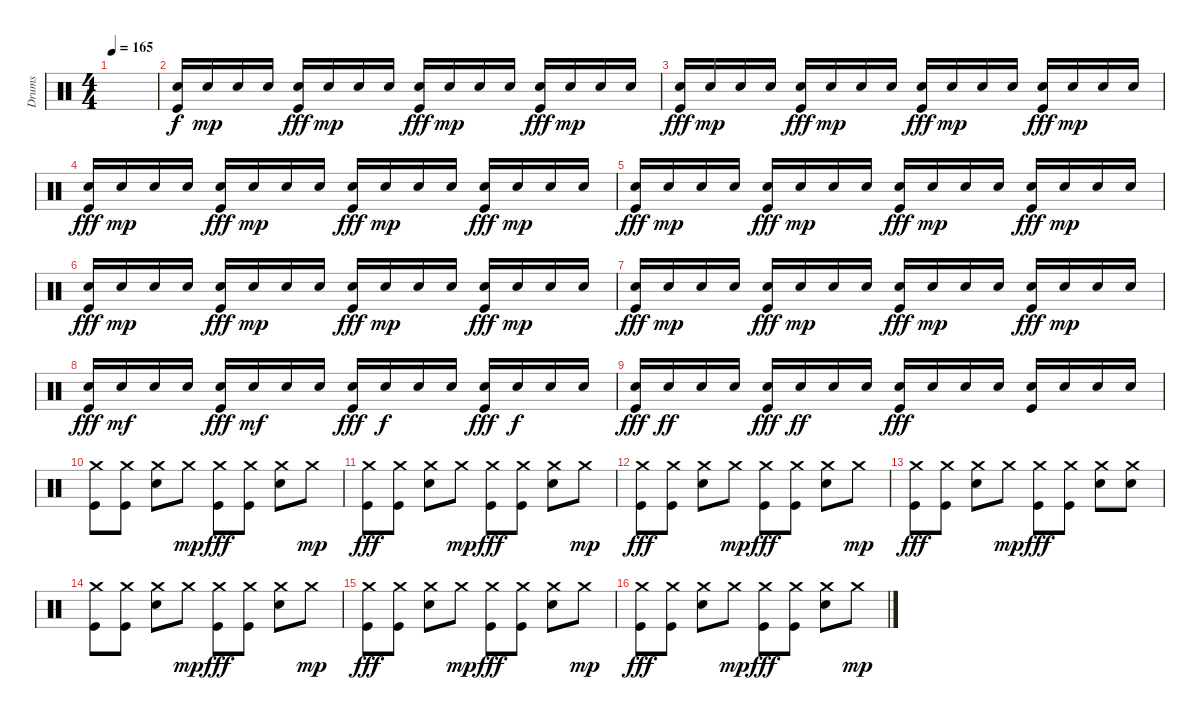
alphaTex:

\track ("Drums" "Drums") {instrument percussion}
\staff {score}
\articulation defaults
\ts (4 4)
\tempo 165
\clef neutral
\ks c
|
("Snare (hit) 2" "Kick (hit)").16 "Snare (hit) 2".16{dy mp} "Snare (hit) 2".16 "Snare (hit) 2".16 ("Snare (hit) 2" "Kick (hit)").16{dy fff} "Snare (hit) 2".16{dy mp} "Snare (hit) 2".16 "Snare (hit) 2".16 ("Snare (hit) 2" "Kick (hit)").16{dy fff} "Snare (hit) 2".16{dy mp} "Snare (hit) 2".16 "Snare (hit) 2".16 ("Snare (hit) 2" "Kick (hit)").16{dy fff} "Snare (hit) 2".16{dy mp} "Snare (hit) 2".16 "Snare (hit) 2".16 |
("Snare (hit) 2" "Kick (hit)").16{dy fff} "Snare (hit) 2".16{dy mp} "Snare (hit) 2".16 "Snare (hit) 2".16 ("Snare (hit) 2" "Kick (hit)").16{dy fff} "Snare (hit) 2".16{dy mp} "Snare (hit) 2".16 "Snare (hit) 2".16 ("Snare (hit) 2" "Kick (hit)").16{dy fff} "Snare (hit) 2".16{dy mp} "Snare (hit) 2".16 "Snare (hit) 2".16 ("Snare (hit) 2" "Kick (hit)").16{dy fff} "Snare (hit) 2".16{dy mp} "Snare (hit) 2".16 "Snare (hit) 2".16 |
("Snare (hit) 2" "Kick (hit)").16{dy fff} "Snare (hit) 2".16{dy mp} "Snare (hit) 2".16 "Snare (hit) 2".16 ("Snare (hit) 2" "Kick (hit)").16{dy fff} "Snare (hit) 2".16{dy mp} "Snare (hit) 2".16 "Snare (hit) 2".16 ("Snare (hit) 2" "Kick (hit)").16{dy fff} "Snare (hit) 2".16{dy mp} "Snare (hit) 2".16 "Snare (hit) 2".16 ("Snare (hit) 2" "Kick (hit)").16{dy fff} "Snare (hit) 2".16{dy mp} "Snare (hit) 2".16 "Snare (hit) 2".16 |
("Snare (hit) 2" "Kick (hit)").16{dy fff} "Snare (hit) 2".16{dy mp} "Snare (hit) 2".16 "Snare (hit) 2".16 ("Snare (hit) 2" "Kick (hit)").16{dy fff} "Snare (hit) 2".16{dy mp} "Snare (hit) 2".16 "Snare (hit) 2".16 ("Snare (hit) 2" "Kick (hit)").16{dy fff} "Snare (hit) 2".16{dy mp} "Snare (hit) 2".16 "Snare (hit) 2".16 ("Snare (hit) 2" "Kick (hit)").16{dy fff} "Snare (hit) 2".16{dy mp} "Snare (hit) 2".16 "Snare (hit) 2".16 |
("Snare (hit) 2" "Kick (hit)").16{dy fff} "Snare (hit) 2".16{dy mp} "Snare (hit) 2".16 "Snare (hit) 2".16 ("Snare (hit) 2" "Kick (hit)").16{dy fff} "Snare (hit) 2".16{dy mp} "Snare (hit) 2".16 "Snare (hit) 2".16 ("Snare (hit) 2" "Kick (hit)").16{dy fff} "Snare (hit) 2".16{dy mp} "Snare (hit) 2".16 "Snare (hit) 2".16 ("Snare (hit) 2" "Kick (hit)").16{dy fff} "Snare (hit) 2".16{dy mp} "Snare (hit) 2".16 "Snare (hit) 2".16 |
("Snare (hit) 2" "Kick (hit)").16{dy fff} "Snare (hit) 2".16{dy mp} "Snare (hit) 2".16 "Snare (hit) 2".16 ("Snare (hit) 2" "Kick (hit)").16{dy fff} "Snare (hit) 2".16{dy mp} "Snare (hit) 2".16 "Snare (hit) 2".16 ("Snare (hit) 2" "Kick (hit)").16{dy fff} "Snare (hit) 2".16{dy mp} "Snare (hit) 2".16 "Snare (hit) 2".16 ("Snare (hit) 2" "Kick (hit)").16{dy fff} "Snare (hit) 2".16{dy mp} "Snare (hit) 2".16 "Snare (hit) 2".16 |
("Snare (hit) 2" "Kick (hit)").16{dy fff} "Snare (hit) 2".16{dy mf} "Snare (hit) 2".16 "Snare (hit) 2".16 ("Snare (hit) 2" "Kick (hit)").16{dy fff} "Snare (hit) 2".16{dy mf} "Snare (hit) 2".16 "Snare (hit) 2".16 ("Snare (hit) 2" "Kick (hit)").16{dy fff} "Snare (hit) 2".16{dy f} "Snare (hit) 2".16 "Snare (hit) 2".16 ("Snare (hit) 2" "Kick (hit)").16{dy fff} "Snare (hit) 2".16{dy f} "Snare (hit) 2".16 "Snare (hit) 2".16 |
("Snare (hit) 2" "Kick (hit)").16{dy fff} "Snare (hit) 2".16{dy ff} "Snare (hit) 2".16 "Snare (hit) 2".16 ("Snare (hit) 2" "Kick (hit)").16{dy fff} "Snare (hit) 2".16{dy ff} "Snare (hit) 2".16 "Snare (hit) 2".16 ("Snare (hit) 2" "Kick (hit)").16{dy fff} "Snare (hit) 2".16 "Snare (hit) 2".16 "Snare (hit) 2".16 ("Snare (hit) 2" "Kick (hit)").16 "Snare (hit) 2".16 "Snare (hit) 2".16 "Snare (hit) 2".16 |
("Crash medium (hit)" "Kick (hit)").8 ("Crash medium (hit)" "Kick (hit)").8 ("Crash medium (hit)" "Snare (hit) 2").8 "Crash medium (hit)".8{dy mp} ("Crash medium (hit)" "Kick (hit)").8{dy fff} ("Crash medium (hit)" "Kick (hit)").8 ("Crash medium (hit)" "Snare (hit) 2").8 "Crash medium (hit)".8{dy mp} |
("Crash medium (hit)" "Kick (hit)").8{dy fff} ("Crash medium (hit)" "Kick (hit)").8 ("Crash medium (hit)" "Snare (hit) 2").8 "Crash medium (hit)".8{dy mp} ("Crash medium (hit)" "Kick (hit)").8{dy fff} ("Crash medium (hit)" "Kick (hit)").8 ("Crash medium (hit)" "Snare (hit) 2").8 "Crash medium (hit)".8{dy mp} |
("Crash medium (hit)" "Kick (hit)").8{dy fff} ("Crash medium (hit)" "Kick (hit)").8 ("Crash medium (hit)" "Snare (hit) 2").8 "Crash medium (hit)".8{dy mp} ("Crash medium (hit)" "Kick (hit)").8{dy fff} ("Crash medium (hit)" "Kick (hit)").8 ("Crash medium (hit)" "Snare (hit) 2").8 "Crash medium (hit)".8{dy mp} |
("Crash medium (hit)" "Kick (hit)").8{dy fff} ("Crash medium (hit)" "Kick (hit)").8 ("Crash medium (hit)" "Snare (hit) 2").8 "Crash medium (hit)".8{dy mp} ("Crash medium (hit)" "Kick (hit)").8{dy fff} ("Crash medium (hit)" "Kick (hit)").8 ("Crash medium (hit)" "Snare (hit) 2").8 ("Crash medium (hit)" "Snare (hit) 2").8 |
("Crash medium (hit)" "Kick (hit)").8 ("Crash medium (hit)" "Kick (hit)").8 ("Crash medium (hit)" "Snare (hit) 2").8 "Crash medium (hit)".8{dy mp} ("Crash medium (hit)" "Kick (hit)").8{dy fff} ("Crash medium (hit)" "Kick (hit)").8 ("Crash medium (hit)" "Snare (hit) 2").8 "Crash medium (hit)".8{dy mp} |
("Crash medium (hit)" "Kick (hit)").8{dy fff} ("Crash medium (hit)" "Kick (hit)").8 ("Crash medium (hit)" "Snare (hit) 2").8 "Crash medium (hit)".8{dy mp} ("Crash medium (hit)" "Kick (hit)").8{dy fff} ("Crash medium (hit)" "Kick (hit)").8 ("Crash medium (hit)" "Snare (hit) 2").8 "Crash medium (hit)".8{dy mp} |
("Crash medium (hit)" "Kick (hit)").8{dy fff} ("Crash medium (hit)" "Kick (hit)").8 ("Crash medium (hit)" "Snare (hit) 2").8 "Crash medium (hit)".8{dy mp} ("Crash medium (hit)" "Kick (hit)").8{dy fff} ("Crash medium (hit)" "Kick (hit)").8 ("Crash medium (hit)" "Snare (hit) 2").8 "Crash medium (hit)".8{dy mp}
